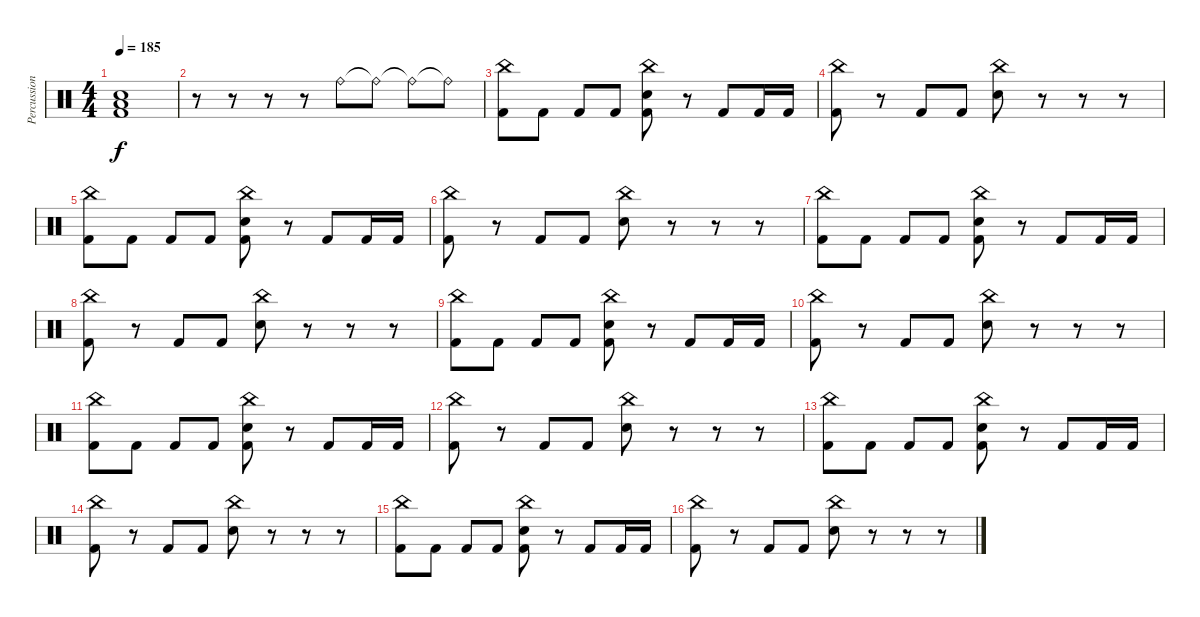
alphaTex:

\track ("Percussion" "Percussion") {instrument percussion}
\staff {score}
\articulation defaults
\ts (4 4)
\tempo 185
\clef neutral
\ks c
("Kick (hit) 2" "Low Floor Tom (hit)" "Snare (hit) 2").1{dy f} |
r.8 r.8 r.8 r.8 "Ride (bell)".8 "Ride (bell)"{t}.8 "Ride (bell)"{t}.8 "Ride (bell)"{t}.8 |
("China (hit)" "Kick (hit) 2").8 "Kick (hit) 2".8 "Kick (hit) 2".8 "Kick (hit) 2".8 ("Snare (hit) 2" "China (hit)" "Kick (hit) 2").8 r.8 "Kick (hit) 2".8 "Kick (hit) 2".16 "Kick (hit) 2".16 |
("China (hit)" "Kick (hit) 2").8 r.8 "Kick (hit) 2".8 "Kick (hit) 2".8 ("Snare (hit) 2" "China (hit)").8 r.8 r.8 r.8 |
("China (hit)" "Kick (hit) 2").8 "Kick (hit) 2".8 "Kick (hit) 2".8 "Kick (hit) 2".8 ("Snare (hit) 2" "China (hit)" "Kick (hit) 2").8 r.8 "Kick (hit) 2".8 "Kick (hit) 2".16 "Kick (hit) 2".16 |
("China (hit)" "Kick (hit) 2").8 r.8 "Kick (hit) 2".8 "Kick (hit) 2".8 ("Snare (hit) 2" "China (hit)").8 r.8 r.8 r.8 |
("China (hit)" "Kick (hit) 2").8 "Kick (hit) 2".8 "Kick (hit) 2".8 "Kick (hit) 2".8 ("Snare (hit) 2" "China (hit)" "Kick (hit) 2").8 r.8 "Kick (hit) 2".8 "Kick (hit) 2".16 "Kick (hit) 2".16 |
("China (hit)" "Kick (hit) 2").8 r.8 "Kick (hit) 2".8 "Kick (hit) 2".8 ("Snare (hit) 2" "China (hit)").8 r.8 r.8 r.8 |
("China (hit)" "Kick (hit) 2").8 "Kick (hit) 2".8 "Kick (hit) 2".8 "Kick (hit) 2".8 ("Snare (hit) 2" "China (hit)" "Kick (hit) 2").8 r.8 "Kick (hit) 2".8 "Kick (hit) 2".16 "Kick (hit) 2".16 |
("China (hit)" "Kick (hit) 2").8 r.8 "Kick (hit) 2".8 "Kick (hit) 2".8 ("Snare (hit) 2" "China (hit)").8 r.8 r.8 r.8 |
("China (hit)" "Kick (hit) 2").8 "Kick (hit) 2".8 "Kick (hit) 2".8 "Kick (hit) 2".8 ("Snare (hit) 2" "China (hit)" "Kick (hit) 2").8 r.8 "Kick (hit) 2".8 "Kick (hit) 2".16 "Kick (hit) 2".16 |
("China (hit)" "Kick (hit) 2").8 r.8 "Kick (hit) 2".8 "Kick (hit) 2".8 ("Snare (hit) 2" "China (hit)").8 r.8 r.8 r.8 |
("China (hit)" "Kick (hit) 2").8 "Kick (hit) 2".8 "Kick (hit) 2".8 "Kick (hit) 2".8 ("Snare (hit) 2" "China (hit)" "Kick (hit) 2").8 r.8 "Kick (hit) 2".8 "Kick (hit) 2".16 "Kick (hit) 2".16 |
("China (hit)" "Kick (hit) 2").8 r.8 "Kick (hit) 2".8 "Kick (hit) 2".8 ("Snare (hit) 2" "China (hit)").8 r.8 r.8 r.8 |
("China (hit)" "Kick (hit) 2").8 "Kick (hit) 2".8 "Kick (hit) 2".8 "Kick (hit) 2".8 ("Snare (hit) 2" "China (hit)" "Kick (hit) 2").8 r.8 "Kick (hit) 2".8 "Kick (hit) 2".16 "Kick (hit) 2".16 |
("China (hit)" "Kick (hit) 2").8 r.8 "Kick (hit) 2".8 "Kick (hit) 2".8 ("Snare (hit) 2" "China (hit)").8 r.8 r.8 r.8
